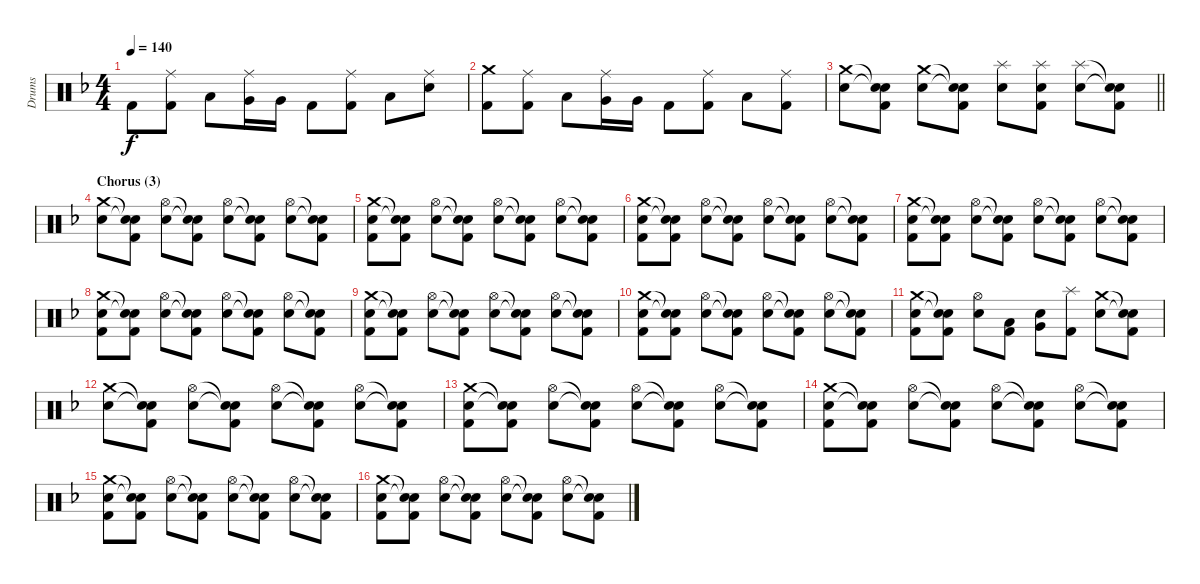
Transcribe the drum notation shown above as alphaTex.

\track ("Drums" "Drums") {instrument percussion}
\staff {score}
\articulation defaults
\ts (4 4)
\tempo 140
\clef neutral
\ks f "Kick (hit) 2".8{dy f}
("Ride (middle)" "Kick (hit) 2").8 "Low Tom (hit)".8 ("Ride (middle)" "Very Low Tom (hit)").16 "Very Low Tom (hit)".16 "Kick (hit) 2".8 ("Ride (middle)" "Kick (hit) 2").8 "Low Floor Tom (hit)".8 ("Ride (middle)" "Electric Snare (hit)").8 |
("Crash medium (hit)" "Kick (hit) 2").8 ("Ride (middle)" "Kick (hit) 2").8 "Low Tom (hit)".8 ("Ride (middle)" "Very Low Tom (hit)").16 "Very Low Tom (hit)".16 "Kick (hit) 2".8 ("Ride (middle)" "Kick (hit) 2").8 "Low Floor Tom (hit)".8 ("Ride (middle)" "Kick (hit) 2").8 |
\barLineRight lightlight
("Crash medium (hit)" "Electric Snare (hit)").8 ("Snare (hit)"{t} "Snare (hit)"{t} "Kick (hit) 2").8 ("Crash medium (hit)" "Electric Snare (hit)").8 ("Snare (hit)"{t} "Snare (hit)"{t} "Kick (hit) 2").8 ("Splash (hit)" "Electric Snare (hit)").8 ("Splash (hit)" "Electric Snare (hit)" "Kick (hit) 2").8 ("Splash (hit)" "Electric Snare (hit)").8 ("Snare (hit)"{t} "Snare (hit)"{t} "Kick (hit) 2").8 |
\section ("" "Chorus (3)")
("Crash medium (hit)" "Electric Snare (hit)").8 ("Snare (hit)"{t} "Snare (hit)"{t} "Kick (hit) 2").8 ("Hi-Hat (open)" "Electric Snare (hit)").8 ("Snare (hit)"{t} "Snare (hit)"{t} "Kick (hit) 2").8 ("Hi-Hat (open)" "Electric Snare (hit)").8 ("Snare (hit)"{t} "Snare (hit)"{t} "Kick (hit) 2").8 ("Hi-Hat (open)" "Electric Snare (hit)").8 ("Snare (hit)"{t} "Snare (hit)"{t} "Kick (hit) 2").8 |
("Crash medium (hit)" "Electric Snare (hit)" "Kick (hit) 2").8 ("Snare (hit)"{t} "Snare (hit)"{t} "Kick (hit) 2").8 ("Hi-Hat (open)" "Electric Snare (hit)").8 ("Snare (hit)"{t} "Snare (hit)"{t} "Kick (hit) 2").8 ("Hi-Hat (open)" "Electric Snare (hit)").8 ("Snare (hit)"{t} "Snare (hit)"{t} "Kick (hit) 2").8 ("Hi-Hat (open)" "Electric Snare (hit)").8 ("Snare (hit)"{t} "Snare (hit)"{t} "Kick (hit) 2").8 |
("Crash medium (hit)" "Electric Snare (hit)" "Kick (hit) 2").8 ("Snare (hit)"{t} "Snare (hit)"{t} "Kick (hit) 2").8 ("Hi-Hat (open)" "Electric Snare (hit)").8 ("Snare (hit)"{t} "Snare (hit)"{t} "Kick (hit) 2").8 ("Hi-Hat (open)" "Electric Snare (hit)").8 ("Snare (hit)"{t} "Snare (hit)"{t} "Kick (hit) 2").8 ("Hi-Hat (open)" "Electric Snare (hit)").8 ("Snare (hit)"{t} "Snare (hit)"{t} "Kick (hit) 2").8 |
("Crash medium (hit)" "Electric Snare (hit)" "Kick (hit) 2").8 ("Snare (hit)"{t} "Snare (hit)"{t} "Kick (hit) 2").8 ("Hi-Hat (open)" "Electric Snare (hit)").8 ("Snare (hit)"{t} "Snare (hit)"{t} "Kick (hit) 2").8 ("Hi-Hat (open)" "Electric Snare (hit)").8 ("Snare (hit)"{t} "Snare (hit)"{t} "Kick (hit) 2").8 ("Hi-Hat (open)" "Electric Snare (hit)").8 ("Snare (hit)"{t} "Snare (hit)"{t} "Kick (hit) 2").8 |
("Crash medium (hit)" "Electric Snare (hit)" "Kick (hit) 2").8 ("Snare (hit)"{t} "Snare (hit)"{t} "Kick (hit) 2").8 ("Hi-Hat (open)" "Electric Snare (hit)").8 ("Snare (hit)"{t} "Snare (hit)"{t} "Kick (hit) 2").8 ("Hi-Hat (open)" "Electric Snare (hit)").8 ("Snare (hit)"{t} "Snare (hit)"{t} "Kick (hit) 2").8 ("Hi-Hat (open)" "Electric Snare (hit)").8 ("Snare (hit)"{t} "Snare (hit)"{t} "Kick (hit) 2").8 |
("Crash medium (hit)" "Electric Snare (hit)" "Kick (hit) 2").8 ("Snare (hit)"{t} "Snare (hit)"{t} "Kick (hit) 2").8 ("Hi-Hat (open)" "Electric Snare (hit)").8 ("Snare (hit)"{t} "Snare (hit)"{t} "Kick (hit) 2").8 ("Hi-Hat (open)" "Electric Snare (hit)").8 ("Snare (hit)"{t} "Snare (hit)"{t} "Kick (hit) 2").8 ("Hi-Hat (open)" "Electric Snare (hit)").8 ("Snare (hit)"{t} "Snare (hit)"{t} "Kick (hit) 2").8 |
("Crash medium (hit)" "Electric Snare (hit)" "Kick (hit) 2").8 ("Snare (hit)"{t} "Snare (hit)"{t} "Kick (hit) 2").8 ("Hi-Hat (open)" "Electric Snare (hit)").8 ("Snare (hit)"{t} "Snare (hit)"{t} "Kick (hit) 2").8 ("Hi-Hat (open)" "Electric Snare (hit)").8 ("Snare (hit)"{t} "Snare (hit)"{t} "Kick (hit) 2").8 ("Hi-Hat (open)" "Electric Snare (hit)").8 ("Snare (hit)"{t} "Snare (hit)"{t} "Kick (hit) 2").8 |
("Crash medium (hit)" "Electric Snare (hit)" "Kick (hit) 2").8 ("Snare (hit)"{t} "Snare (hit)"{t} "Kick (hit) 2").8 ("Hi-Hat (open)" "Electric Snare (hit)").8 ("Low Tom (hit)" "Kick (hit) 2").8 ("Electric Snare (hit)" "Very Low Tom (hit)").8 ("Splash (hit)" "Kick (hit) 2").8 ("Crash medium (hit)" "Electric Snare (hit)").8 ("Snare (hit)"{t} "Snare (hit)"{t} "Kick (hit) 2").8 |
("Crash medium (hit)" "Electric Snare (hit)").8 ("Snare (hit)"{t} "Snare (hit)"{t} "Kick (hit) 2").8 ("Hi-Hat (open)" "Electric Snare (hit)").8 ("Snare (hit)"{t} "Snare (hit)"{t} "Kick (hit) 2").8 ("Hi-Hat (open)" "Electric Snare (hit)").8 ("Snare (hit)"{t} "Snare (hit)"{t} "Kick (hit) 2").8 ("Hi-Hat (open)" "Electric Snare (hit)").8 ("Snare (hit)"{t} "Snare (hit)"{t} "Kick (hit) 2").8 |
("Crash medium (hit)" "Electric Snare (hit)" "Kick (hit) 2").8 ("Snare (hit)"{t} "Snare (hit)"{t} "Kick (hit) 2").8 ("Hi-Hat (open)" "Electric Snare (hit)").8 ("Snare (hit)"{t} "Snare (hit)"{t} "Kick (hit) 2").8 ("Hi-Hat (open)" "Electric Snare (hit)").8 ("Snare (hit)"{t} "Snare (hit)"{t} "Kick (hit) 2").8 ("Hi-Hat (open)" "Electric Snare (hit)").8 ("Snare (hit)"{t} "Snare (hit)"{t} "Kick (hit) 2").8 |
("Crash medium (hit)" "Electric Snare (hit)" "Kick (hit) 2").8 ("Snare (hit)"{t} "Snare (hit)"{t} "Kick (hit) 2").8 ("Hi-Hat (open)" "Electric Snare (hit)").8 ("Snare (hit)"{t} "Snare (hit)"{t} "Kick (hit) 2").8 ("Hi-Hat (open)" "Electric Snare (hit)").8 ("Snare (hit)"{t} "Snare (hit)"{t} "Kick (hit) 2").8 ("Hi-Hat (open)" "Electric Snare (hit)").8 ("Snare (hit)"{t} "Snare (hit)"{t} "Kick (hit) 2").8 |
("Crash medium (hit)" "Electric Snare (hit)" "Kick (hit) 2").8 ("Snare (hit)"{t} "Snare (hit)"{t} "Kick (hit) 2").8 ("Hi-Hat (open)" "Electric Snare (hit)").8 ("Snare (hit)"{t} "Snare (hit)"{t} "Kick (hit) 2").8 ("Hi-Hat (open)" "Electric Snare (hit)").8 ("Snare (hit)"{t} "Snare (hit)"{t} "Kick (hit) 2").8 ("Hi-Hat (open)" "Electric Snare (hit)").8 ("Snare (hit)"{t} "Snare (hit)"{t} "Kick (hit) 2").8 |
("Crash medium (hit)" "Electric Snare (hit)" "Kick (hit) 2").8 ("Snare (hit)"{t} "Snare (hit)"{t} "Kick (hit) 2").8 ("Hi-Hat (open)" "Electric Snare (hit)").8 ("Snare (hit)"{t} "Snare (hit)"{t} "Kick (hit) 2").8 ("Hi-Hat (open)" "Electric Snare (hit)").8 ("Snare (hit)"{t} "Snare (hit)"{t} "Kick (hit) 2").8 ("Hi-Hat (open)" "Electric Snare (hit)").8 ("Snare (hit)"{t} "Snare (hit)"{t} "Kick (hit) 2").8
